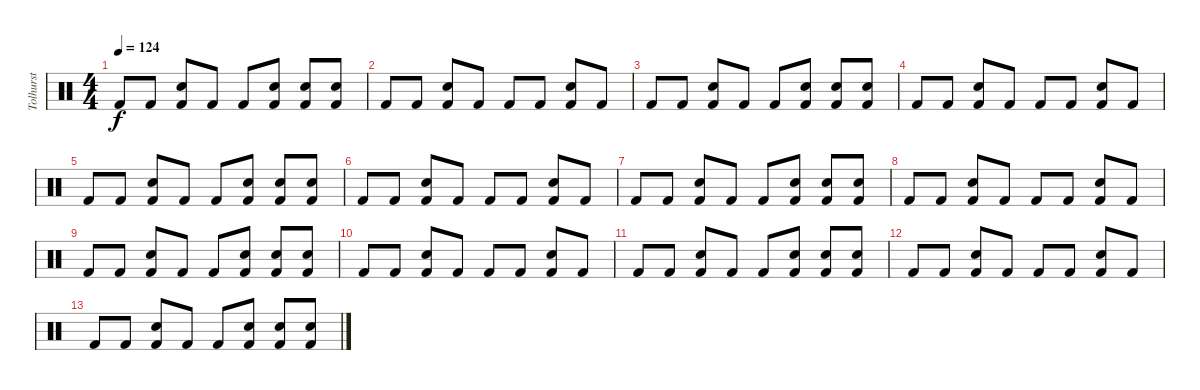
\track ("Tolhurst" "Tolhurst") {instrument percussion}
\staff {score}
\articulation defaults
\ts (4 4)
\tempo 124
\clef neutral
\ks c "Kick (hit) 2".8{dy f} "Kick (hit) 2".8
("Kick (hit) 2" "Snare (hit) 2").8 "Kick (hit) 2".8 "Kick (hit) 2".8 ("Kick (hit) 2" "Snare (hit) 2").8 ("Kick (hit) 2" "Snare (hit) 2").8 ("Kick (hit) 2" "Snare (hit) 2").8 |
"Kick (hit) 2".8 "Kick (hit) 2".8 ("Kick (hit) 2" "Snare (hit) 2").8 "Kick (hit) 2".8 "Kick (hit) 2".8 "Kick (hit) 2".8 ("Kick (hit) 2" "Snare (hit) 2").8 "Kick (hit) 2".8 |
"Kick (hit) 2".8 "Kick (hit) 2".8 ("Kick (hit) 2" "Snare (hit) 2").8 "Kick (hit) 2".8 "Kick (hit) 2".8 ("Kick (hit) 2" "Snare (hit) 2").8 ("Kick (hit) 2" "Snare (hit) 2").8 ("Kick (hit) 2" "Snare (hit) 2").8 |
"Kick (hit) 2".8 "Kick (hit) 2".8 ("Kick (hit) 2" "Snare (hit) 2").8 "Kick (hit) 2".8 "Kick (hit) 2".8 "Kick (hit) 2".8 ("Kick (hit) 2" "Snare (hit) 2").8 "Kick (hit) 2".8 |
"Kick (hit) 2".8 "Kick (hit) 2".8 ("Kick (hit) 2" "Snare (hit) 2").8 "Kick (hit) 2".8 "Kick (hit) 2".8 ("Kick (hit) 2" "Snare (hit) 2").8 ("Kick (hit) 2" "Snare (hit) 2").8 ("Kick (hit) 2" "Snare (hit) 2").8 |
"Kick (hit) 2".8 "Kick (hit) 2".8 ("Kick (hit) 2" "Snare (hit) 2").8 "Kick (hit) 2".8 "Kick (hit) 2".8 "Kick (hit) 2".8 ("Kick (hit) 2" "Snare (hit) 2").8 "Kick (hit) 2".8 |
"Kick (hit) 2".8 "Kick (hit) 2".8 ("Kick (hit) 2" "Snare (hit) 2").8 "Kick (hit) 2".8 "Kick (hit) 2".8 ("Kick (hit) 2" "Snare (hit) 2").8 ("Kick (hit) 2" "Snare (hit) 2").8 ("Kick (hit) 2" "Snare (hit) 2").8 |
"Kick (hit) 2".8 "Kick (hit) 2".8 ("Kick (hit) 2" "Snare (hit) 2").8 "Kick (hit) 2".8 "Kick (hit) 2".8 "Kick (hit) 2".8 ("Kick (hit) 2" "Snare (hit) 2").8 "Kick (hit) 2".8 |
"Kick (hit) 2".8 "Kick (hit) 2".8 ("Kick (hit) 2" "Snare (hit) 2").8 "Kick (hit) 2".8 "Kick (hit) 2".8 ("Kick (hit) 2" "Snare (hit) 2").8 ("Kick (hit) 2" "Snare (hit) 2").8 ("Kick (hit) 2" "Snare (hit) 2").8 |
"Kick (hit) 2".8 "Kick (hit) 2".8 ("Kick (hit) 2" "Snare (hit) 2").8 "Kick (hit) 2".8 "Kick (hit) 2".8 "Kick (hit) 2".8 ("Kick (hit) 2" "Snare (hit) 2").8 "Kick (hit) 2".8 |
"Kick (hit) 2".8 "Kick (hit) 2".8 ("Kick (hit) 2" "Snare (hit) 2").8 "Kick (hit) 2".8 "Kick (hit) 2".8 ("Kick (hit) 2" "Snare (hit) 2").8 ("Kick (hit) 2" "Snare (hit) 2").8 ("Kick (hit) 2" "Snare (hit) 2").8 |
"Kick (hit) 2".8 "Kick (hit) 2".8 ("Kick (hit) 2" "Snare (hit) 2").8 "Kick (hit) 2".8 "Kick (hit) 2".8 "Kick (hit) 2".8 ("Kick (hit) 2" "Snare (hit) 2").8 "Kick (hit) 2".8 |
"Kick (hit) 2".8 "Kick (hit) 2".8 ("Kick (hit) 2" "Snare (hit) 2").8 "Kick (hit) 2".8 "Kick (hit) 2".8 ("Kick (hit) 2" "Snare (hit) 2").8 ("Kick (hit) 2" "Snare (hit) 2").8 ("Kick (hit) 2" "Snare (hit) 2").8
